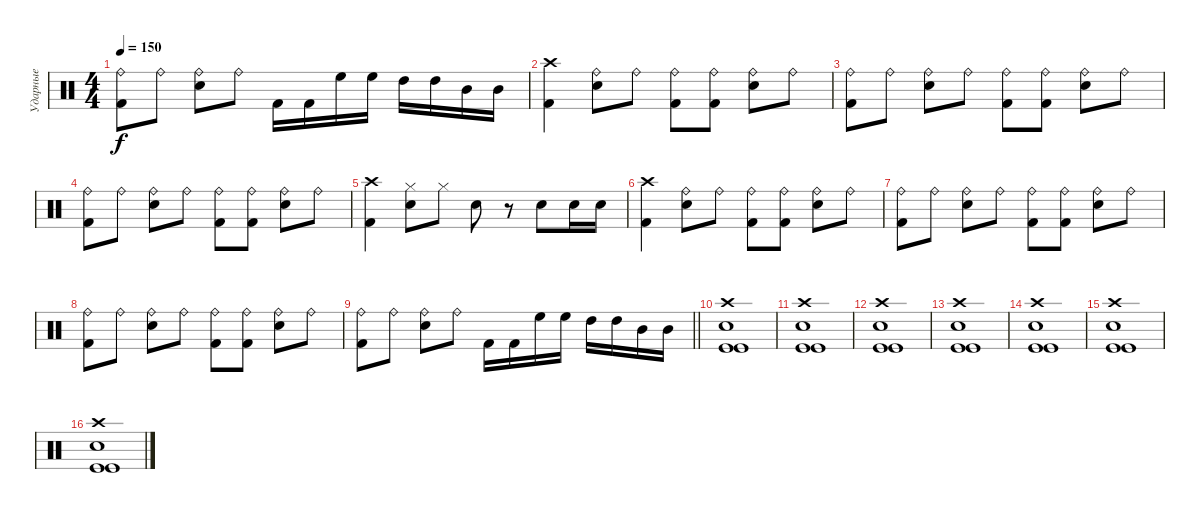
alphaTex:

\track ("Ударные" "Ударные") {instrument percussion}
\staff {score}
\articulation defaults
\ts (4 4)
\tempo 150
\clef neutral
\ks c
("Ride (bell)" "Kick (hit) 2").8{dy f} "Ride (bell)".8 ("Ride (bell)" "Electric Snare (hit)").8 "Ride (bell)".8 "Kick (hit) 2".16 "Kick (hit) 2".16 "High Floor Tom (hit)".16 "High Floor Tom (hit)".16 "High Tom (hit)".16 "High Tom (hit)".16 "Mid Tom (hit)".16 "Mid Tom (hit)".16 |
("Crash high (hit)" "Kick (hit) 2").4 ("Ride (bell)" "Electric Snare (hit)").8 "Ride (bell)".8 ("Ride (bell)" "Kick (hit) 2").8 ("Ride (bell)" "Kick (hit) 2").8 ("Ride (bell)" "Electric Snare (hit)").8 "Ride (bell)".8 |
("Ride (bell)" "Kick (hit) 2").8 "Ride (bell)".8 ("Ride (bell)" "Electric Snare (hit)").8 "Ride (bell)".8 ("Ride (bell)" "Kick (hit) 2").8 ("Ride (bell)" "Kick (hit) 2").8 ("Ride (bell)" "Electric Snare (hit)").8 "Ride (bell)".8 |
("Ride (bell)" "Kick (hit) 2").8 "Ride (bell)".8 ("Ride (bell)" "Electric Snare (hit)").8 "Ride (bell)".8 ("Ride (bell)" "Kick (hit) 2").8 ("Ride (bell)" "Kick (hit) 2").8 ("Ride (bell)" "Electric Snare (hit)").8 "Ride (bell)".8 |
("Crash high (hit)" "Kick (hit) 2").4 ("Hi-Hat (closed)" "Electric Snare (hit)").8 "Hi-Hat (closed)".8 "Electric Snare (hit)".8 r.8 "Electric Snare (hit)".8 "Electric Snare (hit)".16 "Electric Snare (hit)".16 |
("Crash high (hit)" "Kick (hit) 2").4 ("Ride (bell)" "Electric Snare (hit)").8 "Ride (bell)".8 ("Ride (bell)" "Kick (hit) 2").8 ("Ride (bell)" "Kick (hit) 2").8 ("Ride (bell)" "Electric Snare (hit)").8 "Ride (bell)".8 |
("Ride (bell)" "Kick (hit) 2").8 "Ride (bell)".8 ("Ride (bell)" "Electric Snare (hit)").8 "Ride (bell)".8 ("Ride (bell)" "Kick (hit) 2").8 ("Ride (bell)" "Kick (hit) 2").8 ("Ride (bell)" "Electric Snare (hit)").8 "Ride (bell)".8 |
("Ride (bell)" "Kick (hit) 2").8 "Ride (bell)".8 ("Ride (bell)" "Electric Snare (hit)").8 "Ride (bell)".8 ("Ride (bell)" "Kick (hit) 2").8 ("Ride (bell)" "Kick (hit) 2").8 ("Ride (bell)" "Electric Snare (hit)").8 "Ride (bell)".8 |
\barLineRight lightlight
("Ride (bell)" "Kick (hit) 2").8 "Ride (bell)".8 ("Ride (bell)" "Electric Snare (hit)").8 "Ride (bell)".8 "Kick (hit) 2".16 "Kick (hit) 2".16 "High Floor Tom (hit)".16 "High Floor Tom (hit)".16 "High Tom (hit)".16 "High Tom (hit)".16 "Mid Tom (hit)".16 "Mid Tom (hit)".16 |
("Kick (hit)" "Kick (hit)" "Electric Snare (hit)" "Crash high (hit)").1 |
("Kick (hit)" "Kick (hit)" "Electric Snare (hit)" "Crash high (hit)").1 |
("Kick (hit)" "Kick (hit)" "Electric Snare (hit)" "Crash high (hit)").1 |
("Kick (hit)" "Kick (hit)" "Electric Snare (hit)" "Crash high (hit)").1 |
("Kick (hit)" "Kick (hit)" "Electric Snare (hit)" "Crash high (hit)").1 |
("Kick (hit)" "Kick (hit)" "Electric Snare (hit)" "Crash high (hit)").1 |
("Kick (hit)" "Kick (hit)" "Electric Snare (hit)" "Crash high (hit)").1
